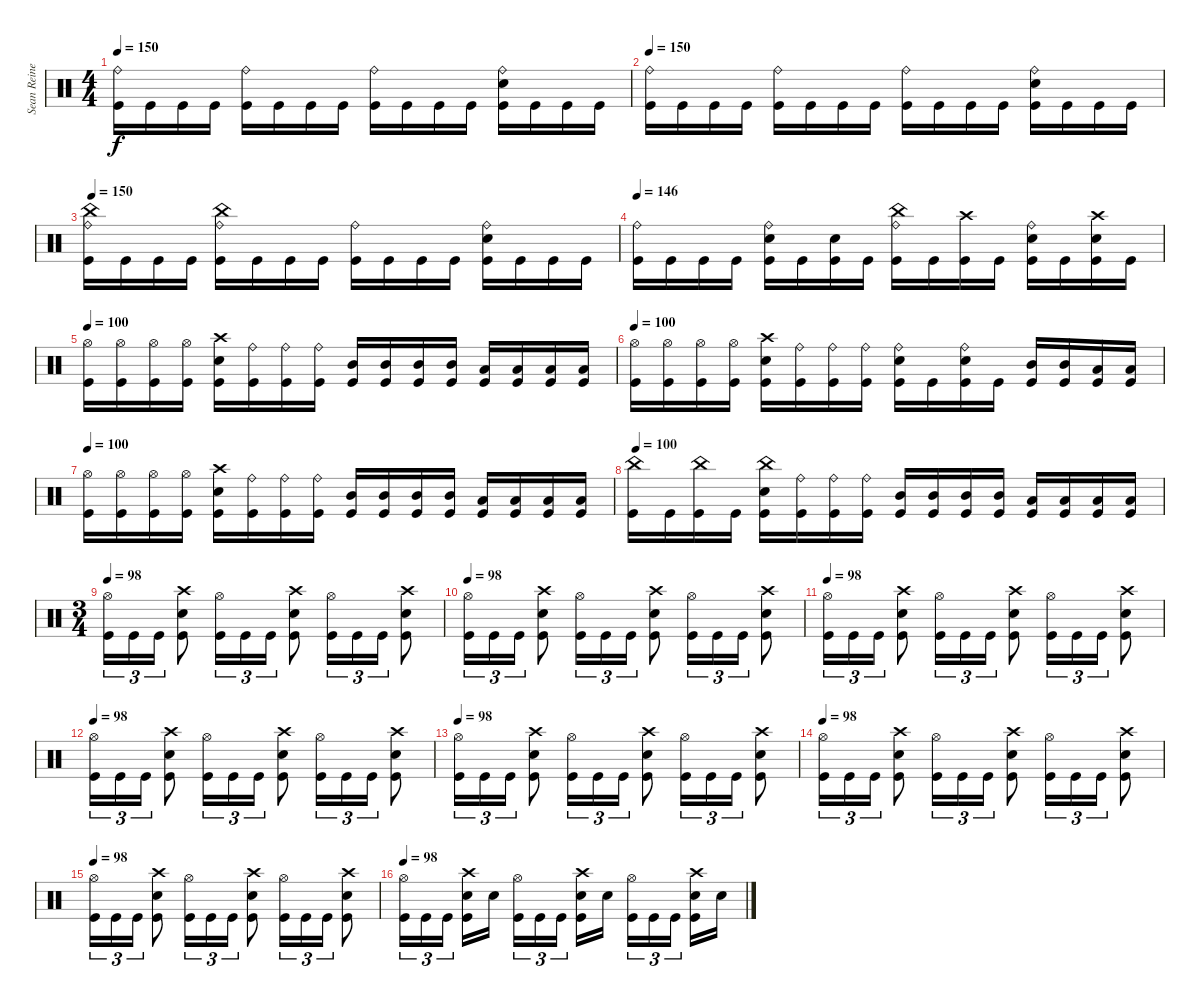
\track ("Sean Reinert" "Sean Reine") {instrument percussion}
\staff {score}
\articulation defaults
\ts (4 4)
\tempo 150
\clef neutral
\ks c
("Ride (bell)" "Kick (hit)").16{dy f} "Kick (hit)".16 "Kick (hit)".16 "Kick (hit)".16 ("Ride (bell)" "Kick (hit)").16 "Kick (hit)".16 "Kick (hit)".16 "Kick (hit)".16 ("Ride (bell)" "Kick (hit)").16 "Kick (hit)".16 "Kick (hit)".16 "Kick (hit)".16 ("Ride (bell)" "Snare (hit) 2" "Kick (hit)").16 "Kick (hit)".16 "Kick (hit)".16 "Kick (hit)".16 |
\tempo 150
("Ride (bell)" "Kick (hit)").16 "Kick (hit)".16 "Kick (hit)".16 "Kick (hit)".16 ("Ride (bell)" "Kick (hit)").16 "Kick (hit)".16 "Kick (hit)".16 "Kick (hit)".16 ("Ride (bell)" "Kick (hit)").16 "Kick (hit)".16 "Kick (hit)".16 "Kick (hit)".16 ("Ride (bell)" "Snare (hit) 2" "Kick (hit)").16 "Kick (hit)".16 "Kick (hit)".16 "Kick (hit)".16 |
\tempo 150
("China (hit)" "Ride (bell)" "Kick (hit)").16 "Kick (hit)".16 "Kick (hit)".16 "Kick (hit)".16 ("China (hit)" "Ride (bell)" "Kick (hit)").16 "Kick (hit)".16 "Kick (hit)".16 "Kick (hit)".16 ("Ride (bell)" "Kick (hit)").16 "Kick (hit)".16 "Kick (hit)".16 "Kick (hit)".16 ("Ride (bell)" "Snare (hit) 2" "Kick (hit)").16 "Kick (hit)".16 "Kick (hit)".16 "Kick (hit)".16 |
\tempo 146
("Ride (bell)" "Kick (hit)").16 "Kick (hit)".16 "Kick (hit)".16 "Kick (hit)".16 ("Ride (bell)" "Snare (hit) 2" "Kick (hit)").16 "Kick (hit)".16 ("Snare (hit) 2" "Kick (hit)").16 "Kick (hit)".16 ("China (hit)" "Ride (bell)" "Kick (hit)").16 "Kick (hit)".16 ("Crash high (hit)" "Kick (hit)").16 "Kick (hit)".16 ("Ride (bell)" "Snare (hit) 2" "Kick (hit)").16 "Kick (hit)".16 ("Crash high (hit)" "Snare (hit) 2" "Kick (hit)").16 "Kick (hit)".16 |
\tempo 100
("Hi-Hat (open)" "Kick (hit)").16 ("Hi-Hat (open)" "Kick (hit)").16 ("Hi-Hat (open)" "Kick (hit)").16 ("Hi-Hat (open)" "Kick (hit)").16 ("Crash high (hit)" "Snare (hit) 2" "Kick (hit)").16 ("Ride (bell)" "Kick (hit)").16 ("Ride (bell)" "Kick (hit)").16 ("Ride (bell)" "Kick (hit)").16 ("Mid Tom (hit)" "Kick (hit)").16 ("Mid Tom (hit)" "Kick (hit)").16 ("Mid Tom (hit)" "Kick (hit)").16 ("Mid Tom (hit)" "Kick (hit)").16 ("Low Tom (hit)" "Kick (hit)").16 ("Low Tom (hit)" "Kick (hit)").16 ("Low Tom (hit)" "Kick (hit)").16 ("Low Tom (hit)" "Kick (hit)").16 |
\tempo 100
("Hi-Hat (open)" "Kick (hit)").16 ("Hi-Hat (open)" "Kick (hit)").16 ("Hi-Hat (open)" "Kick (hit)").16 ("Hi-Hat (open)" "Kick (hit)").16 ("Crash high (hit)" "Snare (hit) 2" "Kick (hit)").16 ("Ride (bell)" "Kick (hit)").16 ("Ride (bell)" "Kick (hit)").16 ("Ride (bell)" "Kick (hit)").16 ("Ride (bell)" "Snare (hit) 2" "Kick (hit)").16 "Kick (hit)".16 ("Ride (bell)" "Snare (hit) 2" "Kick (hit)").16 "Kick (hit)".16 ("Mid Tom (hit)" "Kick (hit)").16 ("Mid Tom (hit)" "Kick (hit)").16 ("Low Tom (hit)" "Kick (hit)").16 ("Low Tom (hit)" "Kick (hit)").16 |
\tempo 100
("Hi-Hat (open)" "Kick (hit)").16 ("Hi-Hat (open)" "Kick (hit)").16 ("Hi-Hat (open)" "Kick (hit)").16 ("Hi-Hat (open)" "Kick (hit)").16 ("Crash high (hit)" "Snare (hit) 2" "Kick (hit)").16 ("Ride (bell)" "Kick (hit)").16 ("Ride (bell)" "Kick (hit)").16 ("Ride (bell)" "Kick (hit)").16 ("Mid Tom (hit)" "Kick (hit)").16 ("Mid Tom (hit)" "Kick (hit)").16 ("Mid Tom (hit)" "Kick (hit)").16 ("Mid Tom (hit)" "Kick (hit)").16 ("Low Tom (hit)" "Kick (hit)").16 ("Low Tom (hit)" "Kick (hit)").16 ("Low Tom (hit)" "Kick (hit)").16 ("Low Tom (hit)" "Kick (hit)").16 |
\tempo 100
("China (hit)" "Kick (hit)").16 "Kick (hit)".16 ("China (hit)" "Kick (hit)").16 "Kick (hit)".16 ("China (hit)" "Snare (hit) 2" "Kick (hit)").16 ("Ride (bell)" "Kick (hit)").16 ("Ride (bell)" "Kick (hit)").16 ("Ride (bell)" "Kick (hit)").16 ("Mid Tom (hit)" "Kick (hit)").16 ("Mid Tom (hit)" "Kick (hit)").16 ("Mid Tom (hit)" "Kick (hit)").16 ("Mid Tom (hit)" "Kick (hit)").16 ("Low Tom (hit)" "Kick (hit)").16 ("Low Tom (hit)" "Kick (hit)").16 ("Low Tom (hit)" "Kick (hit)").16 ("Low Tom (hit)" "Kick (hit)").16 |
\ts (3 4)
\tempo 98
("Hi-Hat (open)" "Kick (hit)").16{tu (3 2)} "Kick (hit)".16{tu (3 2)} "Kick (hit)".16{tu (3 2)} ("Crash high (hit)" "Snare (hit) 2" "Kick (hit)").8 ("Hi-Hat (open)" "Kick (hit)").16{tu (3 2)} "Kick (hit)".16{tu (3 2)} "Kick (hit)".16{tu (3 2)} ("Crash high (hit)" "Snare (hit) 2" "Kick (hit)").8 ("Hi-Hat (open)" "Kick (hit)").16{tu (3 2)} "Kick (hit)".16{tu (3 2)} "Kick (hit)".16{tu (3 2)} ("Crash high (hit)" "Snare (hit) 2" "Kick (hit)").8 |
\tempo 98
("Hi-Hat (open)" "Kick (hit)").16{tu (3 2)} "Kick (hit)".16{tu (3 2)} "Kick (hit)".16{tu (3 2)} ("Crash high (hit)" "Snare (hit) 2" "Kick (hit)").8 ("Hi-Hat (open)" "Kick (hit)").16{tu (3 2)} "Kick (hit)".16{tu (3 2)} "Kick (hit)".16{tu (3 2)} ("Crash high (hit)" "Snare (hit) 2" "Kick (hit)").8 ("Hi-Hat (open)" "Kick (hit)").16{tu (3 2)} "Kick (hit)".16{tu (3 2)} "Kick (hit)".16{tu (3 2)} ("Crash high (hit)" "Snare (hit) 2" "Kick (hit)").8 |
\tempo 98
("Hi-Hat (open)" "Kick (hit)").16{tu (3 2)} "Kick (hit)".16{tu (3 2)} "Kick (hit)".16{tu (3 2)} ("Crash high (hit)" "Snare (hit) 2" "Kick (hit)").8 ("Hi-Hat (open)" "Kick (hit)").16{tu (3 2)} "Kick (hit)".16{tu (3 2)} "Kick (hit)".16{tu (3 2)} ("Crash high (hit)" "Snare (hit) 2" "Kick (hit)").8 ("Hi-Hat (open)" "Kick (hit)").16{tu (3 2)} "Kick (hit)".16{tu (3 2)} "Kick (hit)".16{tu (3 2)} ("Crash high (hit)" "Snare (hit) 2" "Kick (hit)").8 |
\tempo 98
("Hi-Hat (open)" "Kick (hit)").16{tu (3 2)} "Kick (hit)".16{tu (3 2)} "Kick (hit)".16{tu (3 2)} ("Crash high (hit)" "Snare (hit) 2" "Kick (hit)").8 ("Hi-Hat (open)" "Kick (hit)").16{tu (3 2)} "Kick (hit)".16{tu (3 2)} "Kick (hit)".16{tu (3 2)} ("Crash high (hit)" "Snare (hit) 2" "Kick (hit)").8 ("Hi-Hat (open)" "Kick (hit)").16{tu (3 2)} "Kick (hit)".16{tu (3 2)} "Kick (hit)".16{tu (3 2)} ("Crash high (hit)" "Snare (hit) 2" "Kick (hit)").8 |
\tempo 98
("Hi-Hat (open)" "Kick (hit)").16{tu (3 2)} "Kick (hit)".16{tu (3 2)} "Kick (hit)".16{tu (3 2)} ("Crash high (hit)" "Snare (hit) 2" "Kick (hit)").8 ("Hi-Hat (open)" "Kick (hit)").16{tu (3 2)} "Kick (hit)".16{tu (3 2)} "Kick (hit)".16{tu (3 2)} ("Crash high (hit)" "Snare (hit) 2" "Kick (hit)").8 ("Hi-Hat (open)" "Kick (hit)").16{tu (3 2)} "Kick (hit)".16{tu (3 2)} "Kick (hit)".16{tu (3 2)} ("Crash high (hit)" "Snare (hit) 2" "Kick (hit)").8 |
\tempo 98
("Hi-Hat (open)" "Kick (hit)").16{tu (3 2)} "Kick (hit)".16{tu (3 2)} "Kick (hit)".16{tu (3 2)} ("Crash high (hit)" "Snare (hit) 2" "Kick (hit)").8 ("Hi-Hat (open)" "Kick (hit)").16{tu (3 2)} "Kick (hit)".16{tu (3 2)} "Kick (hit)".16{tu (3 2)} ("Crash high (hit)" "Snare (hit) 2" "Kick (hit)").8 ("Hi-Hat (open)" "Kick (hit)").16{tu (3 2)} "Kick (hit)".16{tu (3 2)} "Kick (hit)".16{tu (3 2)} ("Crash high (hit)" "Snare (hit) 2" "Kick (hit)").8 |
\tempo 98
("Hi-Hat (open)" "Kick (hit)").16{tu (3 2)} "Kick (hit)".16{tu (3 2)} "Kick (hit)".16{tu (3 2)} ("Crash high (hit)" "Snare (hit) 2" "Kick (hit)").8 ("Hi-Hat (open)" "Kick (hit)").16{tu (3 2)} "Kick (hit)".16{tu (3 2)} "Kick (hit)".16{tu (3 2)} ("Crash high (hit)" "Snare (hit) 2" "Kick (hit)").8 ("Hi-Hat (open)" "Kick (hit)").16{tu (3 2)} "Kick (hit)".16{tu (3 2)} "Kick (hit)".16{tu (3 2)} ("Crash high (hit)" "Snare (hit) 2" "Kick (hit)").8 |
\tempo 98
("Hi-Hat (open)" "Kick (hit)").16{tu (3 2)} "Kick (hit)".16{tu (3 2)} "Kick (hit)".16{tu (3 2)} ("Crash high (hit)" "Snare (hit) 2" "Kick (hit)").16 "Snare (hit) 2".16 ("Hi-Hat (open)" "Kick (hit)").16{tu (3 2)} "Kick (hit)".16{tu (3 2)} "Kick (hit)".16{tu (3 2)} ("Crash high (hit)" "Snare (hit) 2" "Kick (hit)").16 "Snare (hit) 2".16 ("Hi-Hat (open)" "Kick (hit)").16{tu (3 2)} "Kick (hit)".16{tu (3 2)} "Kick (hit)".16{tu (3 2)} ("Crash high (hit)" "Snare (hit) 2" "Kick (hit)").16 "Snare (hit) 2".16
